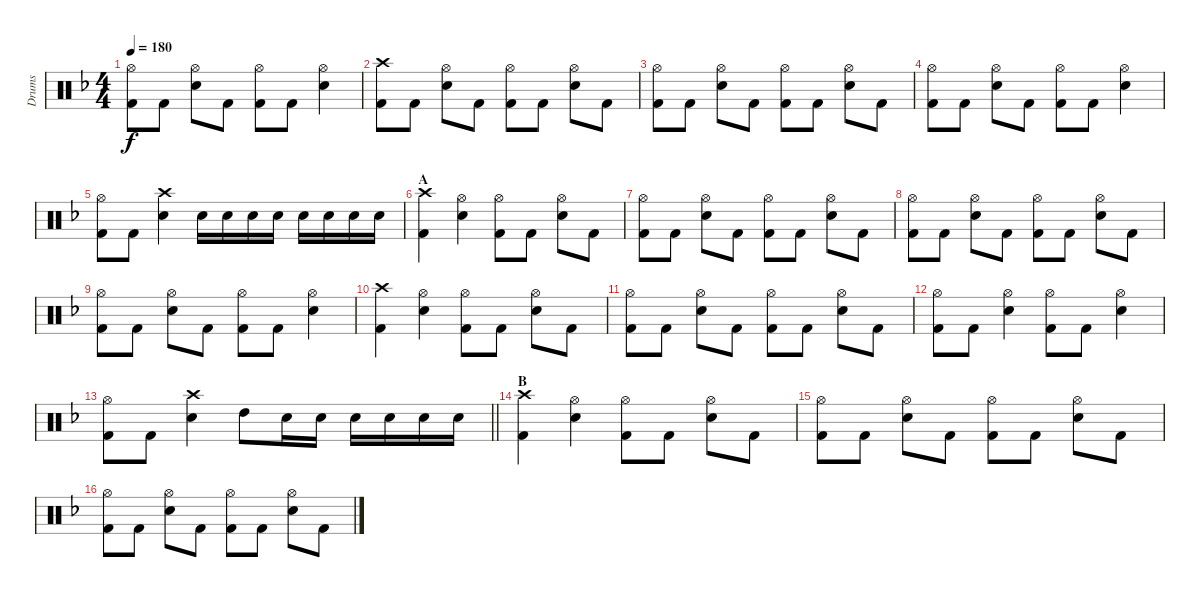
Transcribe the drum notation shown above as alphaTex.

\track ("Drums" "Drums") {instrument percussion}
\staff {score}
\articulation defaults
\ts (4 4)
\tempo 180
\clef neutral
\ks dminor
("Hi-Hat (open)" "Kick (hit) 2").8{dy f} "Kick (hit) 2".8 ("Hi-Hat (open)" "Snare (hit) 2").8 "Kick (hit) 2".8 ("Hi-Hat (open)" "Kick (hit) 2").8 "Kick (hit) 2".8 ("Hi-Hat (open)" "Snare (hit) 2").4 |
("Crash high (hit)" "Kick (hit) 2").8 "Kick (hit) 2".8 ("Hi-Hat (open)" "Snare (hit) 2").8 "Kick (hit) 2".8 ("Hi-Hat (open)" "Kick (hit) 2").8 "Kick (hit) 2".8 ("Hi-Hat (open)" "Snare (hit) 2").8 "Kick (hit) 2".8 |
("Hi-Hat (open)" "Kick (hit) 2").8 "Kick (hit) 2".8 ("Hi-Hat (open)" "Snare (hit) 2").8 "Kick (hit) 2".8 ("Hi-Hat (open)" "Kick (hit) 2").8 "Kick (hit) 2".8 ("Hi-Hat (open)" "Snare (hit) 2").8 "Kick (hit) 2".8 |
("Hi-Hat (open)" "Kick (hit) 2").8 "Kick (hit) 2".8 ("Hi-Hat (open)" "Snare (hit) 2").8 "Kick (hit) 2".8 ("Hi-Hat (open)" "Kick (hit) 2").8 "Kick (hit) 2".8 ("Hi-Hat (open)" "Snare (hit) 2").4 |
("Hi-Hat (open)" "Kick (hit) 2").8 "Kick (hit) 2".8 ("Crash high (hit)" "Snare (hit) 2").4 "Snare (hit) 2".16 "Snare (hit) 2".16 "Snare (hit) 2".16 "Snare (hit) 2".16 "Snare (hit) 2".16 "Snare (hit) 2".16 "Snare (hit) 2".16 "Snare (hit) 2".16 |
\section ("" "A")
("Crash high (hit)" "Kick (hit) 2").4 ("Hi-Hat (open)" "Snare (hit) 2").4 ("Hi-Hat (open)" "Kick (hit) 2").8 "Kick (hit) 2".8 ("Hi-Hat (open)" "Snare (hit) 2").8 "Kick (hit) 2".8 |
("Hi-Hat (open)" "Kick (hit) 2").8 "Kick (hit) 2".8 ("Hi-Hat (open)" "Snare (hit) 2").8 "Kick (hit) 2".8 ("Hi-Hat (open)" "Kick (hit) 2").8 "Kick (hit) 2".8 ("Hi-Hat (open)" "Snare (hit) 2").8 "Kick (hit) 2".8 |
("Hi-Hat (open)" "Kick (hit) 2").8 "Kick (hit) 2".8 ("Hi-Hat (open)" "Snare (hit) 2").8 "Kick (hit) 2".8 ("Hi-Hat (open)" "Kick (hit) 2").8 "Kick (hit) 2".8 ("Hi-Hat (open)" "Snare (hit) 2").8 "Kick (hit) 2".8 |
("Hi-Hat (open)" "Kick (hit) 2").8 "Kick (hit) 2".8 ("Hi-Hat (open)" "Snare (hit) 2").8 "Kick (hit) 2".8 ("Hi-Hat (open)" "Kick (hit) 2").8 "Kick (hit) 2".8 ("Hi-Hat (open)" "Snare (hit) 2").4 |
("Crash high (hit)" "Kick (hit) 2").4 ("Hi-Hat (open)" "Snare (hit) 2").4 ("Hi-Hat (open)" "Kick (hit) 2").8 "Kick (hit) 2".8 ("Hi-Hat (open)" "Snare (hit) 2").8 "Kick (hit) 2".8 |
("Hi-Hat (open)" "Kick (hit) 2").8 "Kick (hit) 2".8 ("Hi-Hat (open)" "Snare (hit) 2").8 "Kick (hit) 2".8 ("Hi-Hat (open)" "Kick (hit) 2").8 "Kick (hit) 2".8 ("Hi-Hat (open)" "Snare (hit) 2").8 "Kick (hit) 2".8 |
("Hi-Hat (open)" "Kick (hit) 2").8 "Kick (hit) 2".8 ("Hi-Hat (open)" "Snare (hit) 2").4 ("Hi-Hat (open)" "Kick (hit) 2").8 "Kick (hit) 2".8 ("Hi-Hat (open)" "Snare (hit) 2").4 |
\barLineRight lightlight
("Hi-Hat (open)" "Kick (hit) 2").8 "Kick (hit) 2".8 ("Crash high (hit)" "Snare (hit) 2").4 "High Tom (hit)".8 "Snare (hit) 2".16 "Snare (hit) 2".16 "Snare (hit) 2".16 "Snare (hit) 2".16 "Snare (hit) 2".16 "Snare (hit) 2".16 |
\section ("" "B")
("Crash high (hit)" "Kick (hit) 2").4 ("Hi-Hat (open)" "Snare (hit) 2").4 ("Hi-Hat (open)" "Kick (hit) 2").8 "Kick (hit) 2".8 ("Hi-Hat (open)" "Snare (hit) 2").8 "Kick (hit) 2".8 |
("Hi-Hat (open)" "Kick (hit) 2").8 "Kick (hit) 2".8 ("Hi-Hat (open)" "Snare (hit) 2").8 "Kick (hit) 2".8 ("Hi-Hat (open)" "Kick (hit) 2").8 "Kick (hit) 2".8 ("Hi-Hat (open)" "Snare (hit) 2").8 "Kick (hit) 2".8 |
("Hi-Hat (open)" "Kick (hit) 2").8 "Kick (hit) 2".8 ("Hi-Hat (open)" "Snare (hit) 2").8 "Kick (hit) 2".8 ("Hi-Hat (open)" "Kick (hit) 2").8 "Kick (hit) 2".8 ("Hi-Hat (open)" "Snare (hit) 2").8 "Kick (hit) 2".8
